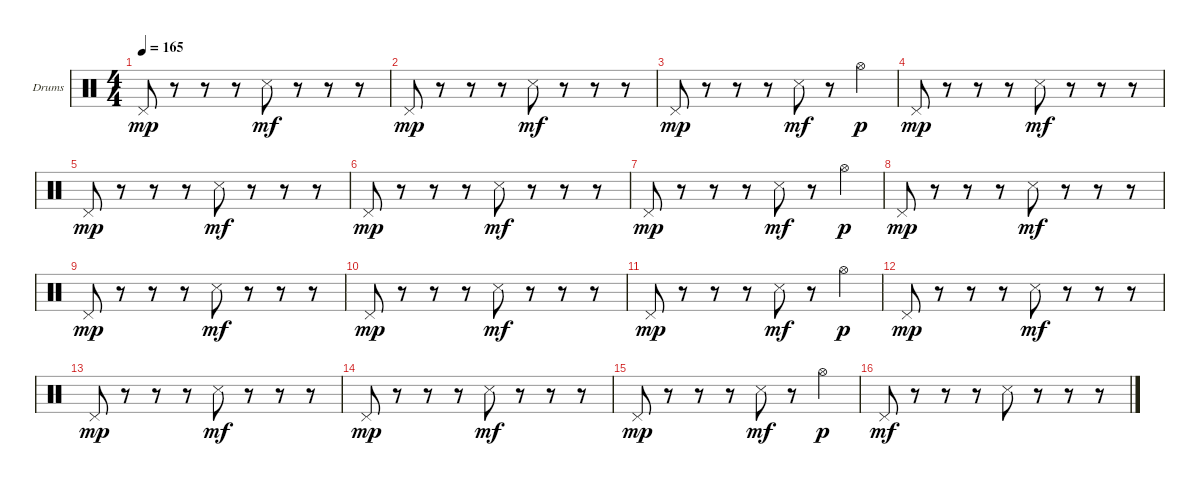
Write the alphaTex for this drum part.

\defaultSystemsLayout 4
\bracketExtendMode groupsimilarinstruments
\firstSystemTrackNameOrientation horizontal
\otherSystemsTrackNameOrientation horizontal
\track ("Drumkit" "Drums") {instrument percussion}
\staff {score}
\articulation defaults
\ts (4 4)
\tempo 165
\clef neutral
\ks c "Pedal Hi-Hat (hit)".8{dy mp}
r.8 r.8 r.8 "Snare (side stick) 3".8{dy mf} r.8 r.8 r.8 |
"Pedal Hi-Hat (hit)".8{dy mp} r.8 r.8 r.8 "Snare (side stick) 3".8{dy mf} r.8 r.8 r.8 |
"Pedal Hi-Hat (hit)".8{dy mp} r.8 r.8 r.8 "Snare (side stick) 3".8{dy mf} r.8 "Hi-Hat (open)".4{dy p} |
"Pedal Hi-Hat (hit)".8{dy mp} r.8 r.8 r.8 "Snare (side stick) 3".8{dy mf} r.8 r.8 r.8 |
"Pedal Hi-Hat (hit)".8{dy mp} r.8 r.8 r.8 "Snare (side stick) 3".8{dy mf} r.8 r.8 r.8 |
"Pedal Hi-Hat (hit)".8{dy mp} r.8 r.8 r.8 "Snare (side stick) 3".8{dy mf} r.8 r.8 r.8 |
"Pedal Hi-Hat (hit)".8{dy mp} r.8 r.8 r.8 "Snare (side stick) 3".8{dy mf} r.8 "Hi-Hat (open)".4{dy p} |
"Pedal Hi-Hat (hit)".8{dy mp} r.8 r.8 r.8 "Snare (side stick) 3".8{dy mf} r.8 r.8 r.8 |
"Pedal Hi-Hat (hit)".8{dy mp} r.8 r.8 r.8 "Snare (side stick) 3".8{dy mf} r.8 r.8 r.8 |
"Pedal Hi-Hat (hit)".8{dy mp} r.8 r.8 r.8 "Snare (side stick) 3".8{dy mf} r.8 r.8 r.8 |
"Pedal Hi-Hat (hit)".8{dy mp} r.8 r.8 r.8 "Snare (side stick) 3".8{dy mf} r.8 "Hi-Hat (open)".4{dy p} |
"Pedal Hi-Hat (hit)".8{dy mp} r.8 r.8 r.8 "Snare (side stick) 3".8{dy mf} r.8 r.8 r.8 |
"Pedal Hi-Hat (hit)".8{dy mp} r.8 r.8 r.8 "Snare (side stick) 3".8{dy mf} r.8 r.8 r.8 |
"Pedal Hi-Hat (hit)".8{dy mp} r.8 r.8 r.8 "Snare (side stick) 3".8{dy mf} r.8 r.8 r.8 |
"Pedal Hi-Hat (hit)".8{dy mp} r.8 r.8 r.8 "Snare (side stick) 3".8{dy mf} r.8 "Hi-Hat (open)".4{dy p} |
"Pedal Hi-Hat (hit)".8{dy mf} r.8 r.8 r.8 "Snare (side stick) 3".8 r.8 r.8 r.8
